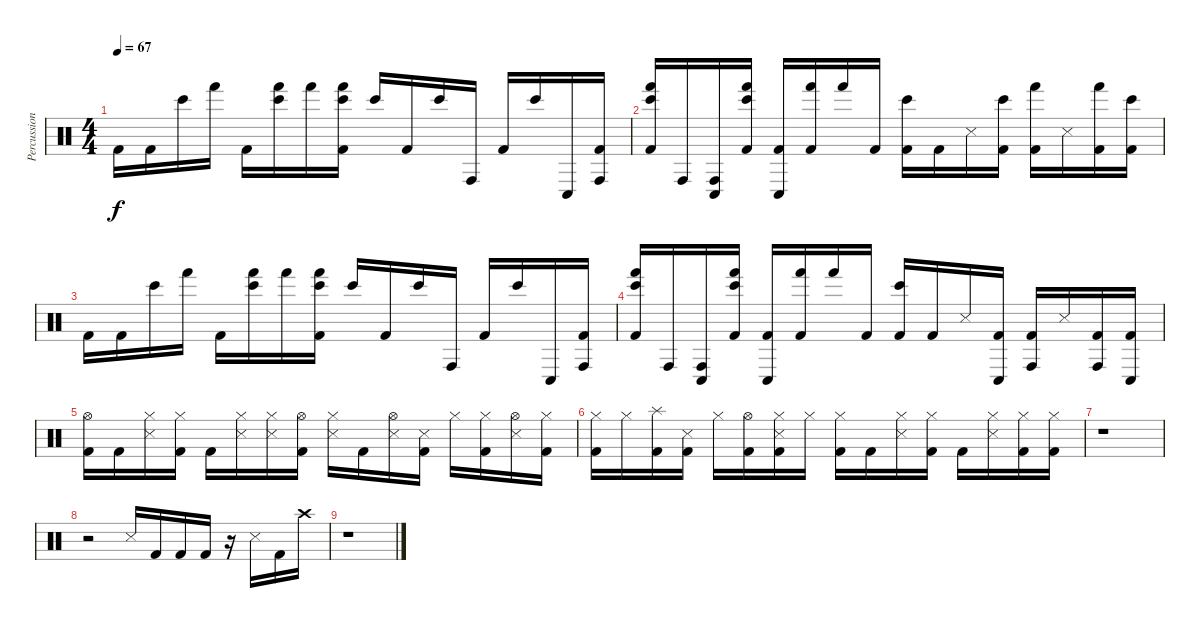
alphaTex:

\track ("Percussion" "Percussion") {instrument percussion}
\staff {score}
\articulation defaults
\ts (4 4)
\tempo 67
\clef neutral
\ks c "Kick (hit) 2".16{dy f} "Kick (hit) 2".16 "Bongo High (hit)".16 "Hand (hit)".16 "Kick (hit) 2".16
("Hand (hit)" "Bongo High (hit)").16 "Hand (hit)".16 ("Hand (hit)" "Bongo High (hit)" "Kick (hit) 2").16 "Bongo High (hit)".16 "Kick (hit) 2".16 "Bongo High (hit)".16 "Conga high (hit)".16 "Kick (hit) 2".16 "Bongo High (hit)".16 "Conga low (hit)".16 ("Conga high (hit)" "Kick (hit) 2").16 |
("Hand (hit)" "Bongo High (hit)" "Kick (hit) 2").16 "Conga high (hit)".16 ("Conga low (hit)" "Conga high (hit)").16 ("Hand (hit)" "Bongo High (hit)" "Kick (hit) 2").16 ("Conga low (hit)" "Kick (hit) 2").16 ("Hand (hit)" "Kick (hit) 2").16 "Hand (hit)".16 "Kick (hit) 2".16 ("Bongo High (hit)" "Kick (hit) 2").16 "Kick (hit) 2".16 "Snare (side stick) 3".16 ("Bongo High (hit)" "Kick (hit) 2").16 ("Hand (hit)" "Kick (hit) 2").16 "Snare (side stick) 3".16 ("Hand (hit)" "Kick (hit) 2").16 ("Bongo High (hit)" "Kick (hit) 2").16 |
"Kick (hit) 2".16 "Kick (hit) 2".16 "Bongo High (hit)".16 "Hand (hit)".16 "Kick (hit) 2".16 ("Hand (hit)" "Bongo High (hit)").16 "Hand (hit)".16 ("Hand (hit)" "Bongo High (hit)" "Kick (hit) 2").16 "Bongo High (hit)".16 "Kick (hit) 2".16 "Bongo High (hit)".16 "Conga high (hit)".16 "Kick (hit) 2".16 "Bongo High (hit)".16 "Conga low (hit)".16 ("Conga high (hit)" "Kick (hit) 2").16 |
("Hand (hit)" "Bongo High (hit)" "Kick (hit) 2").16 "Conga high (hit)".16 ("Conga low (hit)" "Conga high (hit)").16 ("Hand (hit)" "Bongo High (hit)" "Kick (hit) 2").16 ("Conga low (hit)" "Kick (hit) 2").16 ("Hand (hit)" "Kick (hit) 2").16 "Hand (hit)".16 "Kick (hit) 2".16 ("Bongo High (hit)" "Kick (hit) 2").16 "Kick (hit) 2".16 "Snare (side stick) 3".16 ("Conga low (hit)" "Kick (hit) 2").16 ("Conga high (hit)" "Kick (hit) 2").16 "Snare (side stick) 3".16 ("Conga high (hit)" "Kick (hit) 2").16 ("Conga low (hit)" "Kick (hit) 2").16 |
("Hi-Hat (open)" "Kick (hit) 2").16 "Kick (hit) 2".16 ("Hi-Hat (closed)" "Snare (side stick) 3").16 ("Hi-Hat (closed)" "Kick (hit) 2").16 "Kick (hit) 2".16 ("Hi-Hat (closed)" "Snare (side stick) 3").16 ("Hi-Hat (closed)" "Snare (side stick) 3").16 ("Hi-Hat (open)" "Kick (hit) 2").16 ("Hi-Hat (closed)" "Snare (side stick) 3").16 "Kick (hit) 2".16 ("Hi-Hat (open)" "Snare (side stick) 3").16 ("Snare (side stick) 3" "Kick (hit) 2").16 "Hi-Hat (closed)".16 ("Hi-Hat (closed)" "Kick (hit) 2").16 ("Hi-Hat (open)" "Snare (side stick) 3").16 ("Hi-Hat (closed)" "Kick (hit) 2").16 |
("Hi-Hat (closed)" "Kick (hit) 2").16 "Hi-Hat (closed)".16 ("Splash (hit)" "Kick (hit) 2").16 ("Snare (side stick) 3" "Kick (hit) 2").16 "Hi-Hat (closed)".16 ("Hi-Hat (open)" "Kick (hit) 2").16 ("Hi-Hat (closed)" "Snare (side stick) 3" "Kick (hit) 2").16 "Hi-Hat (closed)".16 ("Hi-Hat (closed)" "Kick (hit) 2").16 "Kick (hit) 2".16 ("Hi-Hat (closed)" "Snare (side stick) 3").16 ("Hi-Hat (closed)" "Kick (hit) 2").16 "Kick (hit) 2".16 ("Hi-Hat (closed)" "Snare (side stick) 3").16 ("Hi-Hat (closed)" "Kick (hit) 2").16 ("Hi-Hat (closed)" "Kick (hit) 2").16 |
r.1 |
r.2 "Snare (side stick) 3".16 "Kick (hit) 2".16 "Kick (hit) 2".16 "Kick (hit) 2".16 r.16 "Snare (side stick) 3".16 "Kick (hit) 2".16 "Crash high (hit)".16 |
r.1
